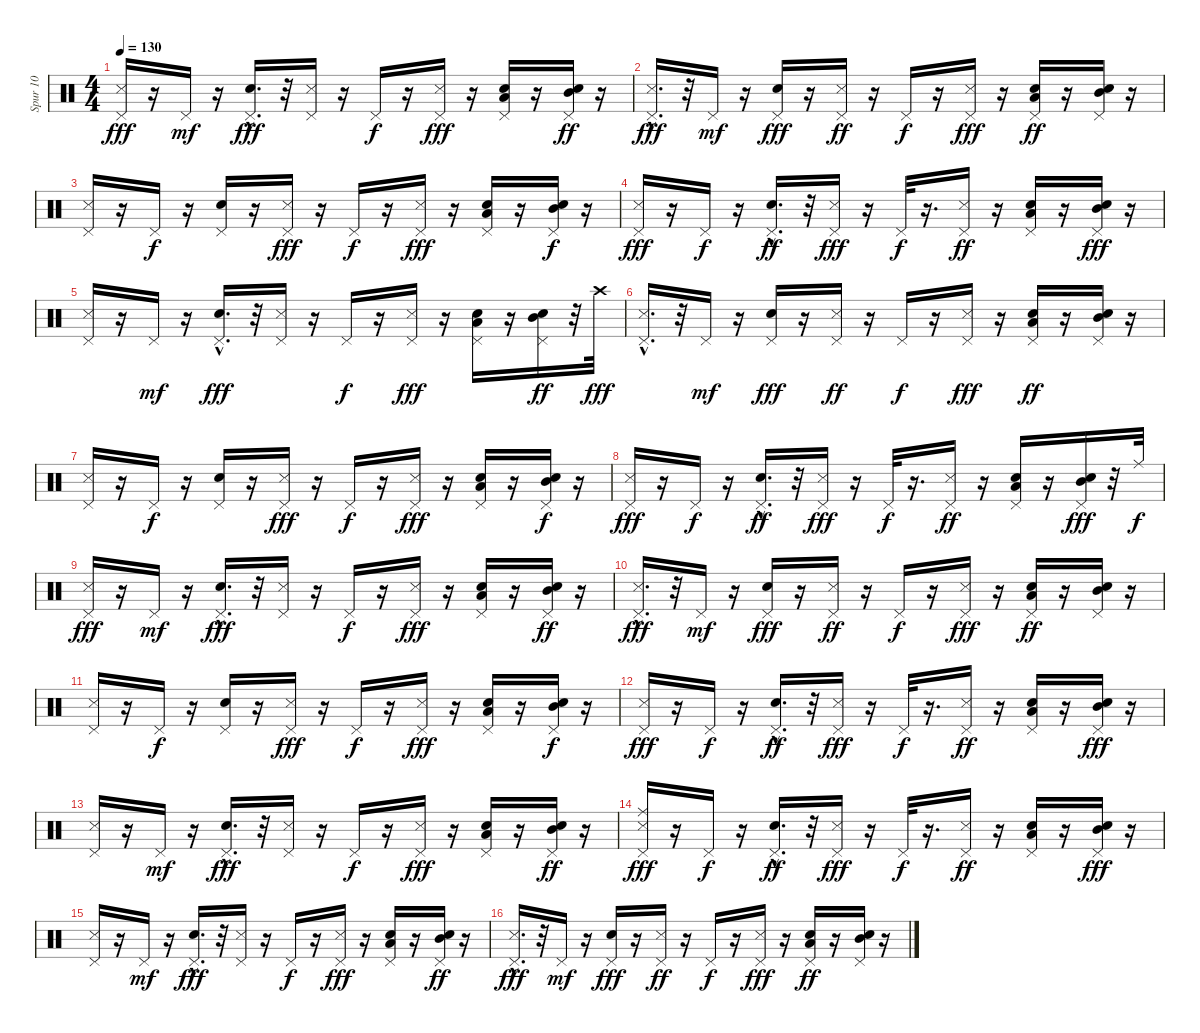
\track ("Spur 10" "Spur 10") {instrument percussion}
\staff {score}
\articulation defaults
\ts (4 4)
\tempo 130
\clef neutral
\ks c
("Pedal Hi-Hat (hit)" "Metronome (hit)").16{dy fff} r.16 "Pedal Hi-Hat (hit)".16{dy mf} r.16 ("Pedal Hi-Hat (hit)" "Snare (hit) 2"{hac}).16{d dy fff} r.32 ("Pedal Hi-Hat (hit)" "Metronome (hit)").16 r.16 "Pedal Hi-Hat (hit)".16{dy f} r.16 ("Pedal Hi-Hat (hit)" "Metronome (hit)").16{dy fff} r.16 ("Low Tom (hit)" "Pedal Hi-Hat (hit)" "Snare (hit) 2").16 r.16 ("Mid Tom (hit)" "Pedal Hi-Hat (hit)" "Snare (hit) 2").16{dy ff} r.16 |
("Pedal Hi-Hat (hit)" "Metronome (hit)"{hac}).16{d dy fff} r.32 "Pedal Hi-Hat (hit)".16{dy mf} r.16 ("Pedal Hi-Hat (hit)" "Snare (hit) 2").16{dy fff} r.16 ("Metronome (hit)" "Pedal Hi-Hat (hit)").16{dy ff} r.16 "Pedal Hi-Hat (hit)".16{dy f} r.16 ("Metronome (hit)" "Pedal Hi-Hat (hit)").16{dy fff} r.16 ("Snare (hit) 2" "Low Tom (hit)" "Pedal Hi-Hat (hit)").16{dy ff} r.16 ("Snare (hit) 2" "Mid Tom (hit)" "Pedal Hi-Hat (hit)").16 r.16 |
("Metronome (hit)" "Pedal Hi-Hat (hit)").16 r.16 "Pedal Hi-Hat (hit)".16{dy f} r.16 ("Snare (hit) 2" "Pedal Hi-Hat (hit)").16 r.16 ("Metronome (hit)" "Pedal Hi-Hat (hit)").16{dy fff} r.16 "Pedal Hi-Hat (hit)".16{dy f} r.16 ("Metronome (hit)" "Pedal Hi-Hat (hit)").16{dy fff} r.16 ("Snare (hit) 2" "Low Tom (hit)" "Pedal Hi-Hat (hit)").16 r.16 ("Snare (hit) 2" "Mid Tom (hit)" "Pedal Hi-Hat (hit)").16{dy f} r.16 |
("Pedal Hi-Hat (hit)" "Metronome (hit)").16{dy fff} r.16 "Pedal Hi-Hat (hit)".16{dy f} r.16 ("Snare (hit) 2"{hac} "Pedal Hi-Hat (hit)").16{d dy ff} r.32 ("Metronome (hit)" "Pedal Hi-Hat (hit)").16{dy fff} r.16 "Pedal Hi-Hat (hit)".32{dy f} r.16{d} ("Metronome (hit)" "Pedal Hi-Hat (hit)").16{dy ff} r.16 ("Low Tom (hit)" "Snare (hit) 2" "Pedal Hi-Hat (hit)").16 r.16 ("Mid Tom (hit)" "Snare (hit) 2" "Pedal Hi-Hat (hit)").16{dy fff} r.16 |
("Pedal Hi-Hat (hit)" "Metronome (hit)").16 r.16 "Pedal Hi-Hat (hit)".16{dy mf} r.16 ("Pedal Hi-Hat (hit)" "Snare (hit) 2"{hac}).16{d dy fff} r.32 ("Pedal Hi-Hat (hit)" "Metronome (hit)").16 r.16 "Pedal Hi-Hat (hit)".16{dy f} r.16 ("Pedal Hi-Hat (hit)" "Metronome (hit)").16{dy fff} r.16 ("Low Tom (hit)" "Pedal Hi-Hat (hit)" "Snare (hit) 2").16 r.16 ("Mid Tom (hit)" "Pedal Hi-Hat (hit)" "Snare (hit) 2").16{dy ff} r.32 "Crash high (hit)".32{dy fff} |
("Pedal Hi-Hat (hit)" "Metronome (hit)"{hac}).16{d} r.32 "Pedal Hi-Hat (hit)".16{dy mf} r.16 ("Pedal Hi-Hat (hit)" "Snare (hit) 2").16{dy fff} r.16 ("Metronome (hit)" "Pedal Hi-Hat (hit)").16{dy ff} r.16 "Pedal Hi-Hat (hit)".16{dy f} r.16 ("Metronome (hit)" "Pedal Hi-Hat (hit)").16{dy fff} r.16 ("Snare (hit) 2" "Low Tom (hit)" "Pedal Hi-Hat (hit)").16{dy ff} r.16 ("Snare (hit) 2" "Mid Tom (hit)" "Pedal Hi-Hat (hit)").16 r.16 |
("Metronome (hit)" "Pedal Hi-Hat (hit)").16 r.16 "Pedal Hi-Hat (hit)".16{dy f} r.16 ("Snare (hit) 2" "Pedal Hi-Hat (hit)").16 r.16 ("Metronome (hit)" "Pedal Hi-Hat (hit)").16{dy fff} r.16 "Pedal Hi-Hat (hit)".16{dy f} r.16 ("Metronome (hit)" "Pedal Hi-Hat (hit)").16{dy fff} r.16 ("Snare (hit) 2" "Low Tom (hit)" "Pedal Hi-Hat (hit)").16 r.16 ("Snare (hit) 2" "Mid Tom (hit)" "Pedal Hi-Hat (hit)").16{dy f} r.16 |
("Pedal Hi-Hat (hit)" "Metronome (hit)").16{dy fff} r.16 "Pedal Hi-Hat (hit)".16{dy f} r.16 ("Snare (hit) 2"{hac} "Pedal Hi-Hat (hit)").16{d dy ff} r.32 ("Metronome (hit)" "Pedal Hi-Hat (hit)").16{dy fff} r.16 "Pedal Hi-Hat (hit)".32{dy f} r.16{d} ("Metronome (hit)" "Pedal Hi-Hat (hit)").16{dy ff} r.16 ("Low Tom (hit)" "Snare (hit) 2" "Pedal Hi-Hat (hit)").16 r.16 ("Mid Tom (hit)" "Snare (hit) 2" "Pedal Hi-Hat (hit)").16{dy fff} r.32 "Ride (middle)".32{dy f} |
("Pedal Hi-Hat (hit)" "Metronome (hit)").16{dy fff} r.16 "Pedal Hi-Hat (hit)".16{dy mf} r.16 ("Pedal Hi-Hat (hit)" "Snare (hit) 2"{hac}).16{d dy fff} r.32 ("Pedal Hi-Hat (hit)" "Metronome (hit)").16 r.16 "Pedal Hi-Hat (hit)".16{dy f} r.16 ("Pedal Hi-Hat (hit)" "Metronome (hit)").16{dy fff} r.16 ("Low Tom (hit)" "Pedal Hi-Hat (hit)" "Snare (hit) 2").16 r.16 ("Mid Tom (hit)" "Pedal Hi-Hat (hit)" "Snare (hit) 2").16{dy ff} r.16 |
("Pedal Hi-Hat (hit)" "Metronome (hit)"{hac}).16{d dy fff} r.32 "Pedal Hi-Hat (hit)".16{dy mf} r.16 ("Pedal Hi-Hat (hit)" "Snare (hit) 2").16{dy fff} r.16 ("Metronome (hit)" "Pedal Hi-Hat (hit)").16{dy ff} r.16 "Pedal Hi-Hat (hit)".16{dy f} r.16 ("Metronome (hit)" "Pedal Hi-Hat (hit)").16{dy fff} r.16 ("Snare (hit) 2" "Low Tom (hit)" "Pedal Hi-Hat (hit)").16{dy ff} r.16 ("Snare (hit) 2" "Mid Tom (hit)" "Pedal Hi-Hat (hit)").16 r.16 |
("Metronome (hit)" "Pedal Hi-Hat (hit)").16 r.16 "Pedal Hi-Hat (hit)".16{dy f} r.16 ("Snare (hit) 2" "Pedal Hi-Hat (hit)").16 r.16 ("Metronome (hit)" "Pedal Hi-Hat (hit)").16{dy fff} r.16 "Pedal Hi-Hat (hit)".16{dy f} r.16 ("Metronome (hit)" "Pedal Hi-Hat (hit)").16{dy fff} r.16 ("Snare (hit) 2" "Low Tom (hit)" "Pedal Hi-Hat (hit)").16 r.16 ("Snare (hit) 2" "Mid Tom (hit)" "Pedal Hi-Hat (hit)").16{dy f} r.16 |
("Pedal Hi-Hat (hit)" "Metronome (hit)").16{dy fff} r.16 "Pedal Hi-Hat (hit)".16{dy f} r.16 ("Snare (hit) 2"{hac} "Pedal Hi-Hat (hit)").16{d dy ff} r.32 ("Metronome (hit)" "Pedal Hi-Hat (hit)").16{dy fff} r.16 "Pedal Hi-Hat (hit)".32{dy f} r.16{d} ("Metronome (hit)" "Pedal Hi-Hat (hit)").16{dy ff} r.16 ("Low Tom (hit)" "Snare (hit) 2" "Pedal Hi-Hat (hit)").16 r.16 ("Mid Tom (hit)" "Snare (hit) 2" "Pedal Hi-Hat (hit)").16{dy fff} r.16 |
("Pedal Hi-Hat (hit)" "Metronome (hit)").16 r.16 "Pedal Hi-Hat (hit)".16{dy mf} r.16 ("Pedal Hi-Hat (hit)" "Snare (hit) 2"{hac}).16{d dy fff} r.32 ("Pedal Hi-Hat (hit)" "Metronome (hit)").16 r.16 "Pedal Hi-Hat (hit)".16{dy f} r.16 ("Pedal Hi-Hat (hit)" "Metronome (hit)").16{dy fff} r.16 ("Low Tom (hit)" "Pedal Hi-Hat (hit)" "Snare (hit) 2").16 r.16 ("Mid Tom (hit)" "Pedal Hi-Hat (hit)" "Snare (hit) 2").16{dy ff} r.16 |
("Ride (middle)" "Pedal Hi-Hat (hit)" "Metronome (hit)").16{dy fff} r.16 "Pedal Hi-Hat (hit)".16{dy f} r.16 ("Snare (hit) 2"{hac} "Pedal Hi-Hat (hit)").16{d dy ff} r.32 ("Metronome (hit)" "Pedal Hi-Hat (hit)").16{dy fff} r.16 "Pedal Hi-Hat (hit)".32{dy f} r.16{d} ("Metronome (hit)" "Pedal Hi-Hat (hit)").16{dy ff} r.16 ("Low Tom (hit)" "Snare (hit) 2" "Pedal Hi-Hat (hit)").16 r.16 ("Mid Tom (hit)" "Snare (hit) 2" "Pedal Hi-Hat (hit)").16{dy fff} r.16 |
("Pedal Hi-Hat (hit)" "Metronome (hit)").16 r.16 "Pedal Hi-Hat (hit)".16{dy mf} r.16 ("Pedal Hi-Hat (hit)" "Snare (hit) 2"{hac}).16{d dy fff} r.32 ("Pedal Hi-Hat (hit)" "Metronome (hit)").16 r.16 "Pedal Hi-Hat (hit)".16{dy f} r.16 ("Pedal Hi-Hat (hit)" "Metronome (hit)").16{dy fff} r.16 ("Low Tom (hit)" "Pedal Hi-Hat (hit)" "Snare (hit) 2").16 r.16 ("Mid Tom (hit)" "Pedal Hi-Hat (hit)" "Snare (hit) 2").16{dy ff} r.16 |
("Pedal Hi-Hat (hit)" "Metronome (hit)"{hac}).16{d dy fff} r.32 "Pedal Hi-Hat (hit)".16{dy mf} r.16 ("Pedal Hi-Hat (hit)" "Snare (hit) 2").16{dy fff} r.16 ("Metronome (hit)" "Pedal Hi-Hat (hit)").16{dy ff} r.16 "Pedal Hi-Hat (hit)".16{dy f} r.16 ("Metronome (hit)" "Pedal Hi-Hat (hit)").16{dy fff} r.16 ("Snare (hit) 2" "Low Tom (hit)" "Pedal Hi-Hat (hit)").16{dy ff} r.16 ("Snare (hit) 2" "Mid Tom (hit)" "Pedal Hi-Hat (hit)").16 r.16
